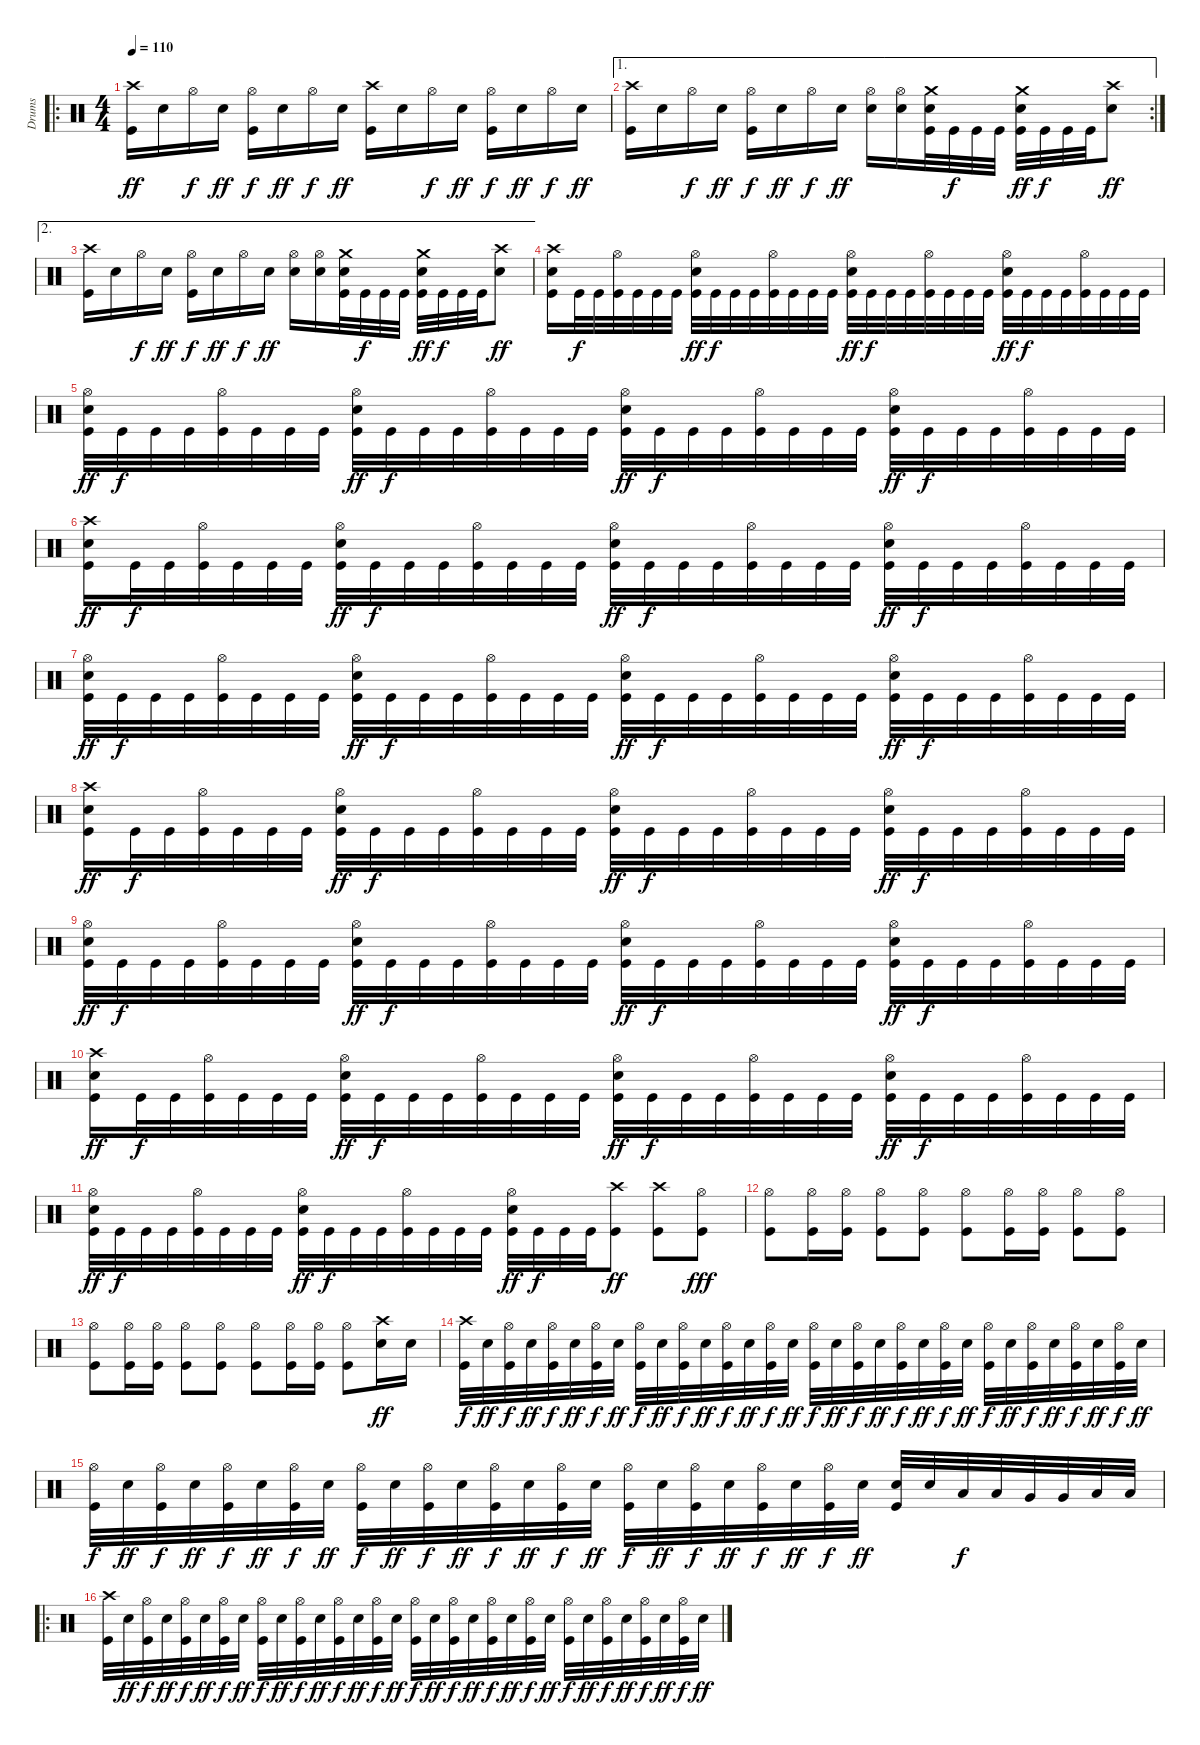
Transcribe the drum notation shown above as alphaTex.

\track ("Drums" "Drums") {instrument percussion}
\staff {score}
\articulation defaults
\ro
\ts (4 4)
\tempo 110
\clef neutral
\ks c
("Kick (hit)" "Crash high (hit)").16{dy ff} "Electric Snare (hit)".16 "Hi-Hat (open)".16{dy f} "Electric Snare (hit)".16{dy ff} ("Kick (hit)" "Hi-Hat (open)").16{dy f} "Electric Snare (hit)".16{dy ff} "Hi-Hat (open)".16{dy f} "Electric Snare (hit)".16{dy ff} ("Kick (hit)" "Crash high (hit)").16 "Electric Snare (hit)".16 "Hi-Hat (open)".16{dy f} "Electric Snare (hit)".16{dy ff} ("Kick (hit)" "Hi-Hat (open)").16{dy f} "Electric Snare (hit)".16{dy ff} "Hi-Hat (open)".16{dy f} "Electric Snare (hit)".16{dy ff} |
\ae 1
\rc 2
("Kick (hit)" "Crash high (hit)").16 "Electric Snare (hit)".16 "Hi-Hat (open)".16{dy f} "Electric Snare (hit)".16{dy ff} ("Kick (hit)" "Hi-Hat (open)").16{dy f} "Electric Snare (hit)".16{dy ff} "Hi-Hat (open)".16{dy f} "Electric Snare (hit)".16{dy ff} ("Electric Snare (hit)" "Hi-Hat (open)").16 ("Electric Snare (hit)" "Hi-Hat (open)").16 ("Kick (hit)" "Electric Snare (hit)" "Crash medium (hit)").32 "Kick (hit)".32{dy f} "Kick (hit)".32 "Kick (hit)".32 ("Kick (hit)" "Electric Snare (hit)" "Crash medium (hit)").32{dy ff} "Kick (hit)".32{dy f} "Kick (hit)".32 "Kick (hit)".32 ("Electric Snare (hit)" "Crash high (hit)").8{dy ff} |
\ae 2
("Kick (hit)" "Crash high (hit)").16 "Electric Snare (hit)".16 "Hi-Hat (open)".16{dy f} "Electric Snare (hit)".16{dy ff} ("Kick (hit)" "Hi-Hat (open)").16{dy f} "Electric Snare (hit)".16{dy ff} "Hi-Hat (open)".16{dy f} "Electric Snare (hit)".16{dy ff} ("Electric Snare (hit)" "Hi-Hat (open)").16 ("Electric Snare (hit)" "Hi-Hat (open)").16 ("Kick (hit)" "Electric Snare (hit)" "Crash medium (hit)").32 "Kick (hit)".32{dy f} "Kick (hit)".32 "Kick (hit)".32 ("Kick (hit)" "Electric Snare (hit)" "Crash medium (hit)").32{dy ff} "Kick (hit)".32{dy f} "Kick (hit)".32 "Kick (hit)".32 ("Electric Snare (hit)" "Crash high (hit)").8{dy ff} |
("Kick (hit)" "Electric Snare (hit)" "Crash high (hit)").16 "Kick (hit)".32{dy f} "Kick (hit)".32 ("Kick (hit)" "Hi-Hat (open)").32 "Kick (hit)".32 "Kick (hit)".32 "Kick (hit)".32 ("Kick (hit)" "Electric Snare (hit)" "Hi-Hat (open)").32{dy ff} "Kick (hit)".32{dy f} "Kick (hit)".32 "Kick (hit)".32 ("Kick (hit)" "Hi-Hat (open)").32 "Kick (hit)".32 "Kick (hit)".32 "Kick (hit)".32 ("Kick (hit)" "Electric Snare (hit)" "Hi-Hat (open)").32{dy ff} "Kick (hit)".32{dy f} "Kick (hit)".32 "Kick (hit)".32 ("Kick (hit)" "Hi-Hat (open)").32 "Kick (hit)".32 "Kick (hit)".32 "Kick (hit)".32 ("Kick (hit)" "Electric Snare (hit)" "Hi-Hat (open)").32{dy ff} "Kick (hit)".32{dy f} "Kick (hit)".32 "Kick (hit)".32 ("Kick (hit)" "Hi-Hat (open)").32 "Kick (hit)".32 "Kick (hit)".32 "Kick (hit)".32 |
("Kick (hit)" "Electric Snare (hit)" "Hi-Hat (open)").32{dy ff} "Kick (hit)".32{dy f} "Kick (hit)".32 "Kick (hit)".32 ("Kick (hit)" "Hi-Hat (open)").32 "Kick (hit)".32 "Kick (hit)".32 "Kick (hit)".32 ("Kick (hit)" "Electric Snare (hit)" "Hi-Hat (open)").32{dy ff} "Kick (hit)".32{dy f} "Kick (hit)".32 "Kick (hit)".32 ("Kick (hit)" "Hi-Hat (open)").32 "Kick (hit)".32 "Kick (hit)".32 "Kick (hit)".32 ("Kick (hit)" "Electric Snare (hit)" "Hi-Hat (open)").32{dy ff} "Kick (hit)".32{dy f} "Kick (hit)".32 "Kick (hit)".32 ("Kick (hit)" "Hi-Hat (open)").32 "Kick (hit)".32 "Kick (hit)".32 "Kick (hit)".32 ("Kick (hit)" "Electric Snare (hit)" "Hi-Hat (open)").32{dy ff} "Kick (hit)".32{dy f} "Kick (hit)".32 "Kick (hit)".32 ("Kick (hit)" "Hi-Hat (open)").32 "Kick (hit)".32 "Kick (hit)".32 "Kick (hit)".32 |
("Kick (hit)" "Electric Snare (hit)" "Crash high (hit)").16{dy ff} "Kick (hit)".32{dy f} "Kick (hit)".32 ("Kick (hit)" "Hi-Hat (open)").32 "Kick (hit)".32 "Kick (hit)".32 "Kick (hit)".32 ("Kick (hit)" "Electric Snare (hit)" "Hi-Hat (open)").32{dy ff} "Kick (hit)".32{dy f} "Kick (hit)".32 "Kick (hit)".32 ("Kick (hit)" "Hi-Hat (open)").32 "Kick (hit)".32 "Kick (hit)".32 "Kick (hit)".32 ("Kick (hit)" "Electric Snare (hit)" "Hi-Hat (open)").32{dy ff} "Kick (hit)".32{dy f} "Kick (hit)".32 "Kick (hit)".32 ("Kick (hit)" "Hi-Hat (open)").32 "Kick (hit)".32 "Kick (hit)".32 "Kick (hit)".32 ("Kick (hit)" "Electric Snare (hit)" "Hi-Hat (open)").32{dy ff} "Kick (hit)".32{dy f} "Kick (hit)".32 "Kick (hit)".32 ("Kick (hit)" "Hi-Hat (open)").32 "Kick (hit)".32 "Kick (hit)".32 "Kick (hit)".32 |
("Kick (hit)" "Electric Snare (hit)" "Hi-Hat (open)").32{dy ff} "Kick (hit)".32{dy f} "Kick (hit)".32 "Kick (hit)".32 ("Kick (hit)" "Hi-Hat (open)").32 "Kick (hit)".32 "Kick (hit)".32 "Kick (hit)".32 ("Kick (hit)" "Electric Snare (hit)" "Hi-Hat (open)").32{dy ff} "Kick (hit)".32{dy f} "Kick (hit)".32 "Kick (hit)".32 ("Kick (hit)" "Hi-Hat (open)").32 "Kick (hit)".32 "Kick (hit)".32 "Kick (hit)".32 ("Kick (hit)" "Electric Snare (hit)" "Hi-Hat (open)").32{dy ff} "Kick (hit)".32{dy f} "Kick (hit)".32 "Kick (hit)".32 ("Kick (hit)" "Hi-Hat (open)").32 "Kick (hit)".32 "Kick (hit)".32 "Kick (hit)".32 ("Kick (hit)" "Electric Snare (hit)" "Hi-Hat (open)").32{dy ff} "Kick (hit)".32{dy f} "Kick (hit)".32 "Kick (hit)".32 ("Kick (hit)" "Hi-Hat (open)").32 "Kick (hit)".32 "Kick (hit)".32 "Kick (hit)".32 |
("Kick (hit)" "Electric Snare (hit)" "Crash high (hit)").16{dy ff} "Kick (hit)".32{dy f} "Kick (hit)".32 ("Kick (hit)" "Hi-Hat (open)").32 "Kick (hit)".32 "Kick (hit)".32 "Kick (hit)".32 ("Kick (hit)" "Electric Snare (hit)" "Hi-Hat (open)").32{dy ff} "Kick (hit)".32{dy f} "Kick (hit)".32 "Kick (hit)".32 ("Kick (hit)" "Hi-Hat (open)").32 "Kick (hit)".32 "Kick (hit)".32 "Kick (hit)".32 ("Kick (hit)" "Electric Snare (hit)" "Hi-Hat (open)").32{dy ff} "Kick (hit)".32{dy f} "Kick (hit)".32 "Kick (hit)".32 ("Kick (hit)" "Hi-Hat (open)").32 "Kick (hit)".32 "Kick (hit)".32 "Kick (hit)".32 ("Kick (hit)" "Electric Snare (hit)" "Hi-Hat (open)").32{dy ff} "Kick (hit)".32{dy f} "Kick (hit)".32 "Kick (hit)".32 ("Kick (hit)" "Hi-Hat (open)").32 "Kick (hit)".32 "Kick (hit)".32 "Kick (hit)".32 |
("Kick (hit)" "Electric Snare (hit)" "Hi-Hat (open)").32{dy ff} "Kick (hit)".32{dy f} "Kick (hit)".32 "Kick (hit)".32 ("Kick (hit)" "Hi-Hat (open)").32 "Kick (hit)".32 "Kick (hit)".32 "Kick (hit)".32 ("Kick (hit)" "Electric Snare (hit)" "Hi-Hat (open)").32{dy ff} "Kick (hit)".32{dy f} "Kick (hit)".32 "Kick (hit)".32 ("Kick (hit)" "Hi-Hat (open)").32 "Kick (hit)".32 "Kick (hit)".32 "Kick (hit)".32 ("Kick (hit)" "Electric Snare (hit)" "Hi-Hat (open)").32{dy ff} "Kick (hit)".32{dy f} "Kick (hit)".32 "Kick (hit)".32 ("Kick (hit)" "Hi-Hat (open)").32 "Kick (hit)".32 "Kick (hit)".32 "Kick (hit)".32 ("Kick (hit)" "Electric Snare (hit)" "Hi-Hat (open)").32{dy ff} "Kick (hit)".32{dy f} "Kick (hit)".32 "Kick (hit)".32 ("Kick (hit)" "Hi-Hat (open)").32 "Kick (hit)".32 "Kick (hit)".32 "Kick (hit)".32 |
("Kick (hit)" "Electric Snare (hit)" "Crash high (hit)").16{dy ff} "Kick (hit)".32{dy f} "Kick (hit)".32 ("Kick (hit)" "Hi-Hat (open)").32 "Kick (hit)".32 "Kick (hit)".32 "Kick (hit)".32 ("Kick (hit)" "Electric Snare (hit)" "Hi-Hat (open)").32{dy ff} "Kick (hit)".32{dy f} "Kick (hit)".32 "Kick (hit)".32 ("Kick (hit)" "Hi-Hat (open)").32 "Kick (hit)".32 "Kick (hit)".32 "Kick (hit)".32 ("Kick (hit)" "Electric Snare (hit)" "Hi-Hat (open)").32{dy ff} "Kick (hit)".32{dy f} "Kick (hit)".32 "Kick (hit)".32 ("Kick (hit)" "Hi-Hat (open)").32 "Kick (hit)".32 "Kick (hit)".32 "Kick (hit)".32 ("Kick (hit)" "Electric Snare (hit)" "Hi-Hat (open)").32{dy ff} "Kick (hit)".32{dy f} "Kick (hit)".32 "Kick (hit)".32 ("Kick (hit)" "Hi-Hat (open)").32 "Kick (hit)".32 "Kick (hit)".32 "Kick (hit)".32 |
("Kick (hit)" "Electric Snare (hit)" "Hi-Hat (open)").32{dy ff} "Kick (hit)".32{dy f} "Kick (hit)".32 "Kick (hit)".32 ("Kick (hit)" "Hi-Hat (open)").32 "Kick (hit)".32 "Kick (hit)".32 "Kick (hit)".32 ("Kick (hit)" "Electric Snare (hit)" "Hi-Hat (open)").32{dy ff} "Kick (hit)".32{dy f} "Kick (hit)".32 "Kick (hit)".32 ("Kick (hit)" "Hi-Hat (open)").32 "Kick (hit)".32 "Kick (hit)".32 "Kick (hit)".32 ("Kick (hit)" "Electric Snare (hit)" "Hi-Hat (open)").32{dy ff} "Kick (hit)".32{dy f} "Kick (hit)".32 "Kick (hit)".32 ("Kick (hit)" "Crash high (hit)").8{dy ff} ("Kick (hit)" "Crash high (hit)").8 ("Kick (hit)" "Hi-Hat (open)").8{dy fff} |
("Kick (hit)" "Hi-Hat (open)").8 ("Kick (hit)" "Hi-Hat (open)").16 ("Kick (hit)" "Hi-Hat (open)").16 ("Kick (hit)" "Hi-Hat (open)").8 ("Kick (hit)" "Hi-Hat (open)").8 ("Kick (hit)" "Hi-Hat (open)").8 ("Kick (hit)" "Hi-Hat (open)").16 ("Kick (hit)" "Hi-Hat (open)").16 ("Kick (hit)" "Hi-Hat (open)").8 ("Kick (hit)" "Hi-Hat (open)").8 |
("Kick (hit)" "Hi-Hat (open)").8 ("Kick (hit)" "Hi-Hat (open)").16 ("Kick (hit)" "Hi-Hat (open)").16 ("Kick (hit)" "Hi-Hat (open)").8 ("Kick (hit)" "Hi-Hat (open)").8 ("Kick (hit)" "Hi-Hat (open)").8 ("Kick (hit)" "Hi-Hat (open)").16 ("Kick (hit)" "Hi-Hat (open)").16 ("Kick (hit)" "Hi-Hat (open)").8 ("Electric Snare (hit)" "Crash high (hit)").16{dy ff} "Electric Snare (hit)".16 |
("Kick (hit)" "Crash high (hit)").32{dy f} "Electric Snare (hit)".32{dy ff} ("Kick (hit)" "Hi-Hat (open)").32{dy f} "Electric Snare (hit)".32{dy ff} ("Kick (hit)" "Hi-Hat (open)").32{dy f} "Electric Snare (hit)".32{dy ff} ("Kick (hit)" "Hi-Hat (open)").32{dy f} "Electric Snare (hit)".32{dy ff} ("Kick (hit)" "Hi-Hat (open)").32{dy f} "Electric Snare (hit)".32{dy ff} ("Kick (hit)" "Hi-Hat (open)").32{dy f} "Electric Snare (hit)".32{dy ff} ("Kick (hit)" "Hi-Hat (open)").32{dy f} "Electric Snare (hit)".32{dy ff} ("Kick (hit)" "Hi-Hat (open)").32{dy f} "Electric Snare (hit)".32{dy ff} ("Kick (hit)" "Hi-Hat (open)").32{dy f} "Electric Snare (hit)".32{dy ff} ("Kick (hit)" "Hi-Hat (open)").32{dy f} "Electric Snare (hit)".32{dy ff} ("Kick (hit)" "Hi-Hat (open)").32{dy f} "Electric Snare (hit)".32{dy ff} ("Kick (hit)" "Hi-Hat (open)").32{dy f} "Electric Snare (hit)".32{dy ff} ("Kick (hit)" "Hi-Hat (open)").32{dy f} "Electric Snare (hit)".32{dy ff} ("Kick (hit)" "Hi-Hat (open)").32{dy f} "Electric Snare (hit)".32{dy ff} ("Kick (hit)" "Hi-Hat (open)").32{dy f} "Electric Snare (hit)".32{dy ff} ("Kick (hit)" "Hi-Hat (open)").32{dy f} "Electric Snare (hit)".32{dy ff} |
("Kick (hit)" "Hi-Hat (open)").32{dy f} "Electric Snare (hit)".32{dy ff} ("Kick (hit)" "Hi-Hat (open)").32{dy f} "Electric Snare (hit)".32{dy ff} ("Kick (hit)" "Hi-Hat (open)").32{dy f} "Electric Snare (hit)".32{dy ff} ("Kick (hit)" "Hi-Hat (open)").32{dy f} "Electric Snare (hit)".32{dy ff} ("Kick (hit)" "Hi-Hat (open)").32{dy f} "Electric Snare (hit)".32{dy ff} ("Kick (hit)" "Hi-Hat (open)").32{dy f} "Electric Snare (hit)".32{dy ff} ("Kick (hit)" "Hi-Hat (open)").32{dy f} "Electric Snare (hit)".32{dy ff} ("Kick (hit)" "Hi-Hat (open)").32{dy f} "Electric Snare (hit)".32{dy ff} ("Kick (hit)" "Hi-Hat (open)").32{dy f} "Electric Snare (hit)".32{dy ff} ("Kick (hit)" "Hi-Hat (open)").32{dy f} "Electric Snare (hit)".32{dy ff} ("Kick (hit)" "Hi-Hat (open)").32{dy f} "Electric Snare (hit)".32{dy ff} ("Kick (hit)" "Hi-Hat (open)").32{dy f} "Electric Snare (hit)".32{dy ff} ("Kick (hit)" "Electric Snare (hit)").32 "Electric Snare (hit)".32 "Low Tom (hit)".32{dy f} "Low Tom (hit)".32 "Very Low Tom (hit)".32 "Very Low Tom (hit)".32 "Low Floor Tom (hit)".32 "Low Floor Tom (hit)".32 |
\ro
("Kick (hit)" "Crash high (hit)").32 "Electric Snare (hit)".32{dy ff} ("Kick (hit)" "Hi-Hat (open)").32{dy f} "Electric Snare (hit)".32{dy ff} ("Kick (hit)" "Hi-Hat (open)").32{dy f} "Electric Snare (hit)".32{dy ff} ("Kick (hit)" "Hi-Hat (open)").32{dy f} "Electric Snare (hit)".32{dy ff} ("Kick (hit)" "Hi-Hat (open)").32{dy f} "Electric Snare (hit)".32{dy ff} ("Kick (hit)" "Hi-Hat (open)").32{dy f} "Electric Snare (hit)".32{dy ff} ("Kick (hit)" "Hi-Hat (open)").32{dy f} "Electric Snare (hit)".32{dy ff} ("Kick (hit)" "Hi-Hat (open)").32{dy f} "Electric Snare (hit)".32{dy ff} ("Kick (hit)" "Hi-Hat (open)").32{dy f} "Electric Snare (hit)".32{dy ff} ("Kick (hit)" "Hi-Hat (open)").32{dy f} "Electric Snare (hit)".32{dy ff} ("Kick (hit)" "Hi-Hat (open)").32{dy f} "Electric Snare (hit)".32{dy ff} ("Kick (hit)" "Hi-Hat (open)").32{dy f} "Electric Snare (hit)".32{dy ff} ("Kick (hit)" "Hi-Hat (open)").32{dy f} "Electric Snare (hit)".32{dy ff} ("Kick (hit)" "Hi-Hat (open)").32{dy f} "Electric Snare (hit)".32{dy ff} ("Kick (hit)" "Hi-Hat (open)").32{dy f} "Electric Snare (hit)".32{dy ff} ("Kick (hit)" "Hi-Hat (open)").32{dy f} "Electric Snare (hit)".32{dy ff}
